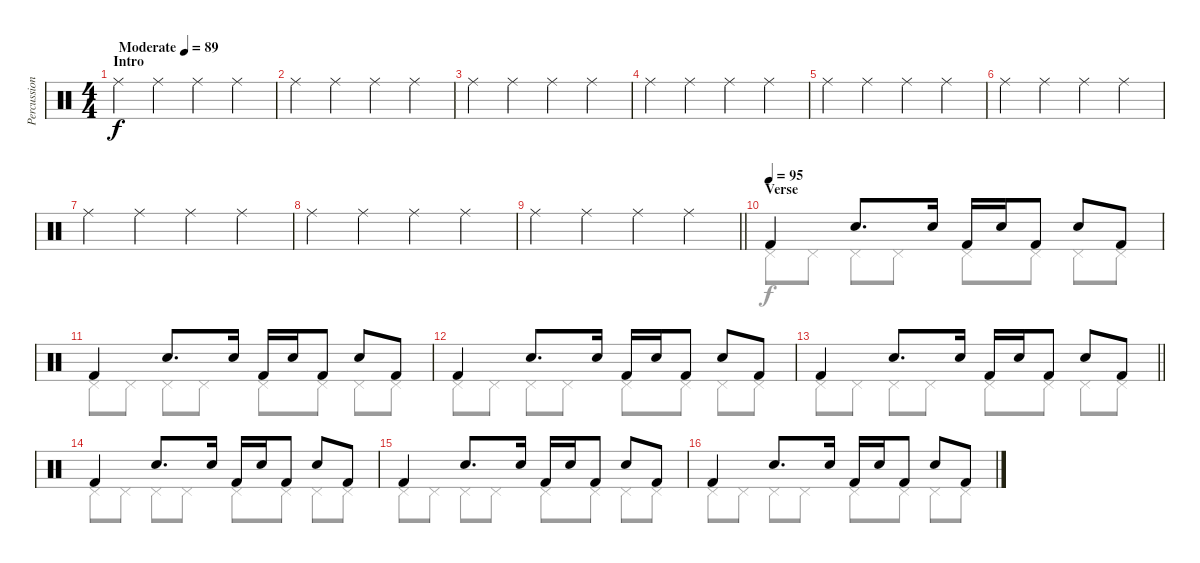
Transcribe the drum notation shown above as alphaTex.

\track ("Percussion" "Percussion") {instrument percussion}
\staff {score}
\articulation defaults
\voice
\ts (4 4)
\section ("" "Intro")
\tempo (89 "Moderate")
\clef neutral
\ks c "Ride (middle)".4{dy f} "Ride (middle)".4 "Ride (middle)".4 "Ride (middle)".4
|
"Ride (middle)".4 "Ride (middle)".4 "Ride (middle)".4 "Ride (middle)".4 |
"Ride (middle)".4 "Ride (middle)".4 "Ride (middle)".4 "Ride (middle)".4 |
"Ride (middle)".4 "Ride (middle)".4 "Ride (middle)".4 "Ride (middle)".4 |
"Ride (middle)".4 "Ride (middle)".4 "Ride (middle)".4 "Ride (middle)".4 |
"Ride (middle)".4 "Ride (middle)".4 "Ride (middle)".4 "Ride (middle)".4 |
"Ride (middle)".4 "Ride (middle)".4 "Ride (middle)".4 "Ride (middle)".4 |
"Ride (middle)".4 "Ride (middle)".4 "Ride (middle)".4 "Ride (middle)".4 |
\barLineRight lightlight "Ride (middle)".4 "Ride (middle)".4 "Ride (middle)".4 "Ride (middle)".4
|
\section ("" "Verse")
\tempo (95)
"Kick (hit) 2".4 "Snare (hit) 2".8{d} "Snare (hit) 2".16 "Kick (hit) 2".16 "Snare (hit) 2".16 "Kick (hit) 2".8 "Snare (hit) 2".8 "Kick (hit) 2".8 |
"Kick (hit) 2".4 "Snare (hit) 2".8{d} "Snare (hit) 2".16 "Kick (hit) 2".16 "Snare (hit) 2".16 "Kick (hit) 2".8 "Snare (hit) 2".8 "Kick (hit) 2".8 |
"Kick (hit) 2".4 "Snare (hit) 2".8{d} "Snare (hit) 2".16 "Kick (hit) 2".16 "Snare (hit) 2".16 "Kick (hit) 2".8 "Snare (hit) 2".8 "Kick (hit) 2".8 |
\barLineRight lightlight "Kick (hit) 2".4 "Snare (hit) 2".8{d} "Snare (hit) 2".16 "Kick (hit) 2".16 "Snare (hit) 2".16 "Kick (hit) 2".8 "Snare (hit) 2".8 "Kick (hit) 2".8
|
"Kick (hit) 2".4 "Snare (hit) 2".8{d} "Snare (hit) 2".16 "Kick (hit) 2".16 "Snare (hit) 2".16 "Kick (hit) 2".8 "Snare (hit) 2".8 "Kick (hit) 2".8 |
"Kick (hit) 2".4 "Snare (hit) 2".8{d} "Snare (hit) 2".16 "Kick (hit) 2".16 "Snare (hit) 2".16 "Kick (hit) 2".8 "Snare (hit) 2".8 "Kick (hit) 2".8 |
"Kick (hit) 2".4 "Snare (hit) 2".8{d} "Snare (hit) 2".16 "Kick (hit) 2".16 "Snare (hit) 2".16 "Kick (hit) 2".8 "Snare (hit) 2".8 "Kick (hit) 2".8
\voice
\clef neutral
\ottava regular
\simile none
\ks c
|
|
|
|
|
|
|
|
\barLineRight lightlight
|
"Pedal Hi-Hat (hit)".8 "Pedal Hi-Hat (hit)".8 "Pedal Hi-Hat (hit)".8 "Pedal Hi-Hat (hit)".8 "Pedal Hi-Hat (hit)".8 "Pedal Hi-Hat (hit)".8 "Pedal Hi-Hat (hit)".8 "Pedal Hi-Hat (hit)".8 |
"Pedal Hi-Hat (hit)".8 "Pedal Hi-Hat (hit)".8 "Pedal Hi-Hat (hit)".8 "Pedal Hi-Hat (hit)".8 "Pedal Hi-Hat (hit)".8 "Pedal Hi-Hat (hit)".8 "Pedal Hi-Hat (hit)".8 "Pedal Hi-Hat (hit)".8 |
"Pedal Hi-Hat (hit)".8 "Pedal Hi-Hat (hit)".8 "Pedal Hi-Hat (hit)".8 "Pedal Hi-Hat (hit)".8 "Pedal Hi-Hat (hit)".8 "Pedal Hi-Hat (hit)".8 "Pedal Hi-Hat (hit)".8 "Pedal Hi-Hat (hit)".8 |
\barLineRight lightlight "Pedal Hi-Hat (hit)".8 "Pedal Hi-Hat (hit)".8 "Pedal Hi-Hat (hit)".8 "Pedal Hi-Hat (hit)".8 "Pedal Hi-Hat (hit)".8 "Pedal Hi-Hat (hit)".8 "Pedal Hi-Hat (hit)".8 "Pedal Hi-Hat (hit)".8
|
"Pedal Hi-Hat (hit)".8 "Pedal Hi-Hat (hit)".8 "Pedal Hi-Hat (hit)".8 "Pedal Hi-Hat (hit)".8 "Pedal Hi-Hat (hit)".8 "Pedal Hi-Hat (hit)".8 "Pedal Hi-Hat (hit)".8 "Pedal Hi-Hat (hit)".8 |
"Pedal Hi-Hat (hit)".8 "Pedal Hi-Hat (hit)".8 "Pedal Hi-Hat (hit)".8 "Pedal Hi-Hat (hit)".8 "Pedal Hi-Hat (hit)".8 "Pedal Hi-Hat (hit)".8 "Pedal Hi-Hat (hit)".8 "Pedal Hi-Hat (hit)".8 |
"Pedal Hi-Hat (hit)".8 "Pedal Hi-Hat (hit)".8 "Pedal Hi-Hat (hit)".8 "Pedal Hi-Hat (hit)".8 "Pedal Hi-Hat (hit)".8 "Pedal Hi-Hat (hit)".8 "Pedal Hi-Hat (hit)".8 "Pedal Hi-Hat (hit)".8
